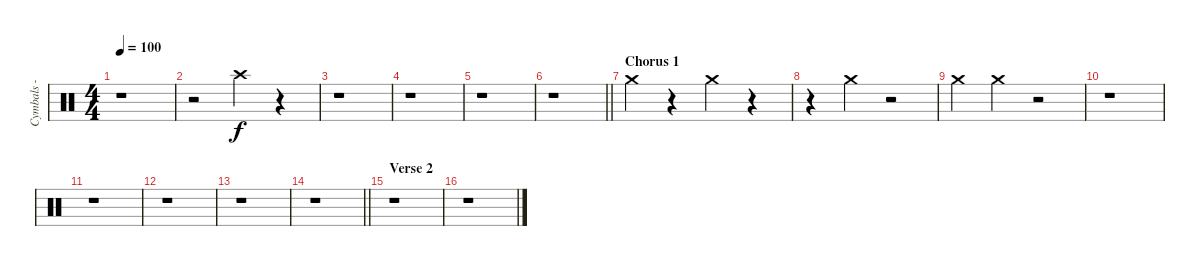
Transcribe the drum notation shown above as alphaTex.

\track ("Cymbals - crash - left" "Cymbals - ") {instrument percussion}
\staff {score}
\articulation defaults
\ts (4 4)
\tempo 100
\clef neutral
\ks c
r.1{dy f} |
r.2 "Crash high (hit)".4 r.4 |
r.1 |
r.1 |
r.1 |
\barLineRight lightlight
r.1 |
\section ("" "Chorus 1")
"Crash medium (hit)".4 r.4 "Crash medium (hit)".4 r.4 |
r.4 "Crash medium (hit)".4 r.2 |
"Crash medium (hit)".4 "Crash medium (hit)".4 r.2 |
r.1 |
r.1 |
r.1 |
r.1 |
\barLineRight lightlight
r.1 |
\section ("" "Verse 2")
r.1 |
r.1
